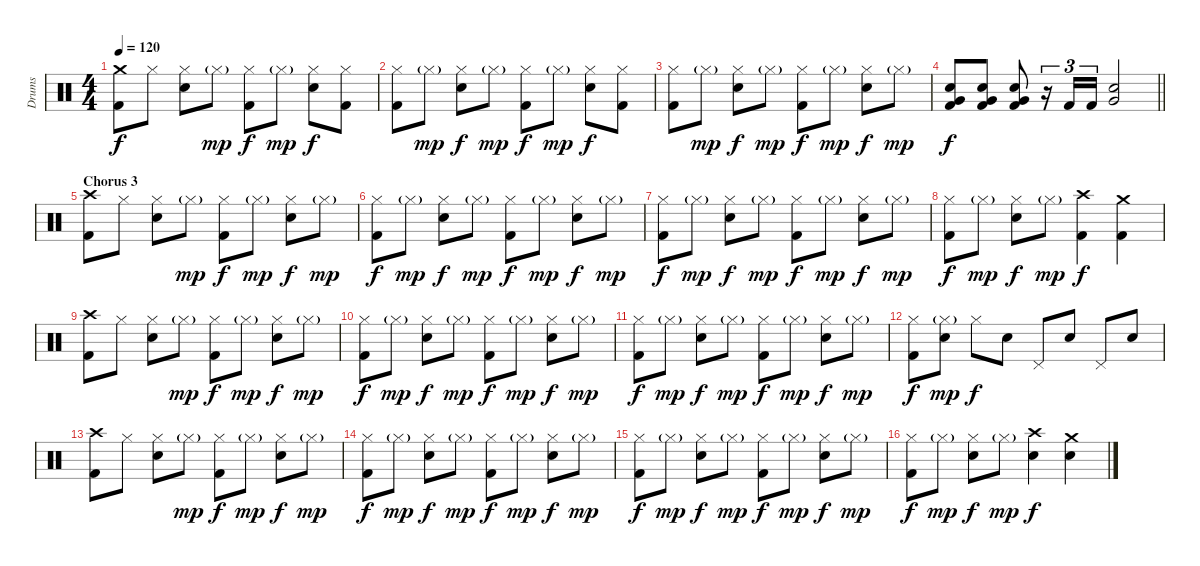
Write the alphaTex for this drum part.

\track ("Drums" "Drums") {instrument percussion}
\staff {score}
\articulation defaults
\ts (4 4)
\tempo 120
\clef neutral
\ks c
("Crash medium (hit)" "Kick (hit) 2").8{dy f} "Hi-Hat (closed)".8 ("Hi-Hat (closed)" "Electric Snare (hit)").8 "Hi-Hat (closed)"{g}.8{dy mp} ("Hi-Hat (closed)" "Kick (hit) 2").8{dy f} "Hi-Hat (closed)"{g}.8{dy mp} ("Hi-Hat (closed)" "Electric Snare (hit)").8{dy f} ("Hi-Hat (closed)" "Kick (hit) 2").8 |
("Hi-Hat (closed)" "Kick (hit) 2").8 "Hi-Hat (closed)"{g}.8{dy mp} ("Hi-Hat (closed)" "Electric Snare (hit)").8{dy f} "Hi-Hat (closed)"{g}.8{dy mp} ("Hi-Hat (closed)" "Kick (hit) 2").8{dy f} "Hi-Hat (closed)"{g}.8{dy mp} ("Hi-Hat (closed)" "Electric Snare (hit)").8{dy f} ("Hi-Hat (closed)" "Kick (hit) 2").8 |
("Hi-Hat (closed)" "Kick (hit) 2").8 "Hi-Hat (closed)"{g}.8{dy mp} ("Hi-Hat (closed)" "Electric Snare (hit)").8{dy f} "Hi-Hat (closed)"{g}.8{dy mp} ("Hi-Hat (closed)" "Kick (hit) 2").8{dy f} "Hi-Hat (closed)"{g}.8{dy mp} ("Hi-Hat (closed)" "Electric Snare (hit)").8{dy f} "Hi-Hat (closed)"{g}.8{dy mp} |
\barLineRight lightlight
("Very Low Tom (hit)" "Electric Snare (hit)" "Kick (hit) 2").8{dy f} ("Very Low Tom (hit)" "Electric Snare (hit)" "Kick (hit) 2").8 ("Very Low Tom (hit)" "Electric Snare (hit)" "Kick (hit) 2").8 r.16{tu (3 2)} "Kick (hit) 2".16{tu (3 2)} "Kick (hit) 2".16{tu (3 2)} ("Very Low Tom (hit)" "Electric Snare (hit)").2 |
\section ("" "Chorus 3")
("Crash high (hit)" "Kick (hit) 2").8 "Hi-Hat (closed)".8 ("Hi-Hat (closed)" "Electric Snare (hit)").8 "Hi-Hat (closed)"{g}.8{dy mp} ("Hi-Hat (closed)" "Kick (hit) 2").8{dy f} "Hi-Hat (closed)"{g}.8{dy mp} ("Hi-Hat (closed)" "Electric Snare (hit)").8{dy f} "Hi-Hat (closed)"{g}.8{dy mp} |
("Hi-Hat (closed)" "Kick (hit) 2").8{dy f} "Hi-Hat (closed)"{g}.8{dy mp} ("Hi-Hat (closed)" "Electric Snare (hit)").8{dy f} "Hi-Hat (closed)"{g}.8{dy mp} ("Hi-Hat (closed)" "Kick (hit) 2").8{dy f} "Hi-Hat (closed)"{g}.8{dy mp} ("Hi-Hat (closed)" "Electric Snare (hit)").8{dy f} "Hi-Hat (closed)"{g}.8{dy mp} |
("Hi-Hat (closed)" "Kick (hit) 2").8{dy f} "Hi-Hat (closed)"{g}.8{dy mp} ("Hi-Hat (closed)" "Electric Snare (hit)").8{dy f} "Hi-Hat (closed)"{g}.8{dy mp} ("Hi-Hat (closed)" "Kick (hit) 2").8{dy f} "Hi-Hat (closed)"{g}.8{dy mp} ("Hi-Hat (closed)" "Electric Snare (hit)").8{dy f} "Hi-Hat (closed)"{g}.8{dy mp} |
("Hi-Hat (closed)" "Kick (hit) 2").8{dy f} "Hi-Hat (closed)"{g}.8{dy mp} ("Hi-Hat (closed)" "Electric Snare (hit)").8{dy f} "Hi-Hat (closed)"{g}.8{dy mp} ("Crash high (hit)" "Kick (hit) 2").4{dy f} ("Crash medium (hit)" "Kick (hit) 2").4 |
("Crash high (hit)" "Kick (hit) 2").8 "Hi-Hat (closed)".8 ("Hi-Hat (closed)" "Electric Snare (hit)").8 "Hi-Hat (closed)"{g}.8{dy mp} ("Hi-Hat (closed)" "Kick (hit) 2").8{dy f} "Hi-Hat (closed)"{g}.8{dy mp} ("Hi-Hat (closed)" "Electric Snare (hit)").8{dy f} "Hi-Hat (closed)"{g}.8{dy mp} |
("Hi-Hat (closed)" "Kick (hit) 2").8{dy f} "Hi-Hat (closed)"{g}.8{dy mp} ("Hi-Hat (closed)" "Electric Snare (hit)").8{dy f} "Hi-Hat (closed)"{g}.8{dy mp} ("Hi-Hat (closed)" "Kick (hit) 2").8{dy f} "Hi-Hat (closed)"{g}.8{dy mp} ("Hi-Hat (closed)" "Electric Snare (hit)").8{dy f} "Hi-Hat (closed)"{g}.8{dy mp} |
("Hi-Hat (closed)" "Kick (hit) 2").8{dy f} "Hi-Hat (closed)"{g}.8{dy mp} ("Hi-Hat (closed)" "Electric Snare (hit)").8{dy f} "Hi-Hat (closed)"{g}.8{dy mp} ("Hi-Hat (closed)" "Kick (hit) 2").8{dy f} "Hi-Hat (closed)"{g}.8{dy mp} ("Hi-Hat (closed)" "Electric Snare (hit)").8{dy f} "Hi-Hat (closed)"{g}.8{dy mp} |
("Hi-Hat (closed)" "Kick (hit) 2").8{dy f} ("Hi-Hat (closed)"{g} "Electric Snare (hit)").8{dy mp} "Hi-Hat (closed)".8{dy f} "Electric Snare (hit)".8 "Pedal Hi-Hat (hit)".8 "Electric Snare (hit)".8 "Pedal Hi-Hat (hit)".8 "Electric Snare (hit)".8 |
("Crash high (hit)" "Kick (hit) 2").8 "Hi-Hat (closed)".8 ("Hi-Hat (closed)" "Electric Snare (hit)").8 "Hi-Hat (closed)"{g}.8{dy mp} ("Hi-Hat (closed)" "Kick (hit) 2").8{dy f} "Hi-Hat (closed)"{g}.8{dy mp} ("Hi-Hat (closed)" "Electric Snare (hit)").8{dy f} "Hi-Hat (closed)"{g}.8{dy mp} |
("Hi-Hat (closed)" "Kick (hit) 2").8{dy f} "Hi-Hat (closed)"{g}.8{dy mp} ("Hi-Hat (closed)" "Electric Snare (hit)").8{dy f} "Hi-Hat (closed)"{g}.8{dy mp} ("Hi-Hat (closed)" "Kick (hit) 2").8{dy f} "Hi-Hat (closed)"{g}.8{dy mp} ("Hi-Hat (closed)" "Electric Snare (hit)").8{dy f} "Hi-Hat (closed)"{g}.8{dy mp} |
("Hi-Hat (closed)" "Kick (hit) 2").8{dy f} "Hi-Hat (closed)"{g}.8{dy mp} ("Hi-Hat (closed)" "Electric Snare (hit)").8{dy f} "Hi-Hat (closed)"{g}.8{dy mp} ("Hi-Hat (closed)" "Kick (hit) 2").8{dy f} "Hi-Hat (closed)"{g}.8{dy mp} ("Hi-Hat (closed)" "Electric Snare (hit)").8{dy f} "Hi-Hat (closed)"{g}.8{dy mp} |
("Hi-Hat (closed)" "Kick (hit) 2").8{dy f} "Hi-Hat (closed)"{g}.8{dy mp} ("Hi-Hat (closed)" "Electric Snare (hit)").8{dy f} "Hi-Hat (closed)"{g}.8{dy mp} ("Crash high (hit)" "Electric Snare (hit)").4{dy f} ("Crash medium (hit)" "Electric Snare (hit)").4
